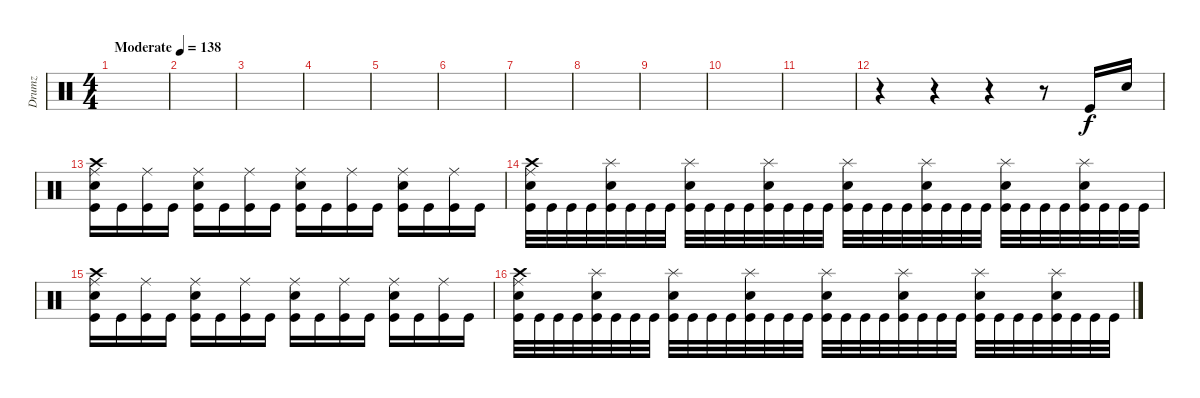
\track ("Drumz" "Drumz") {instrument percussion}
\staff {score}
\articulation defaults
\ts (4 4)
\tempo (138 "Moderate")
\clef neutral
\ks c
|
|
|
|
|
|
|
|
|
|
|
r.4 r.4 r.4 r.8 "Kick (hit)".16 "Snare (hit) 2".16 |
("Kick (hit)" "Crash high (hit)" "Ride (middle)" "Snare (hit) 2").16 "Kick (hit)".16 ("Kick (hit)" "Ride (middle)").16 "Kick (hit)".16 ("Kick (hit)" "Ride (middle)" "Snare (hit) 2").16 "Kick (hit)".16 ("Kick (hit)" "Ride (middle)").16 "Kick (hit)".16 ("Kick (hit)" "Ride (middle)" "Snare (hit) 2").16 "Kick (hit)".16 ("Kick (hit)" "Ride (middle)").16 "Kick (hit)".16 ("Kick (hit)" "Ride (middle)" "Snare (hit) 2").16 "Kick (hit)".16 ("Kick (hit)" "Ride (middle)").16 "Kick (hit)".16 |
("Kick (hit)" "Crash high (hit)" "Ride (middle)" "Snare (hit) 2").32 "Kick (hit)".32 "Kick (hit)".32 "Kick (hit)".32 ("Kick (hit)" "Splash (hit)" "Snare (hit) 2").32 "Kick (hit)".32 "Kick (hit)".32 "Kick (hit)".32 ("Kick (hit)" "Splash (hit)" "Snare (hit) 2").32 "Kick (hit)".32 "Kick (hit)".32 "Kick (hit)".32 ("Kick (hit)" "Splash (hit)" "Snare (hit) 2").32 "Kick (hit)".32 "Kick (hit)".32 "Kick (hit)".32 ("Kick (hit)" "Splash (hit)" "Snare (hit) 2").32 "Kick (hit)".32 "Kick (hit)".32 "Kick (hit)".32 ("Kick (hit)" "Splash (hit)" "Snare (hit) 2").32 "Kick (hit)".32 "Kick (hit)".32 "Kick (hit)".32 ("Kick (hit)" "Splash (hit)" "Snare (hit) 2").32 "Kick (hit)".32 "Kick (hit)".32 "Kick (hit)".32 ("Kick (hit)" "Splash (hit)" "Snare (hit) 2").32 "Kick (hit)".32 "Kick (hit)".32 "Kick (hit)".32 |
("Kick (hit)" "Crash high (hit)" "Ride (middle)" "Snare (hit) 2").16 "Kick (hit)".16 ("Kick (hit)" "Ride (middle)").16 "Kick (hit)".16 ("Kick (hit)" "Ride (middle)" "Snare (hit) 2").16 "Kick (hit)".16 ("Kick (hit)" "Ride (middle)").16 "Kick (hit)".16 ("Kick (hit)" "Ride (middle)" "Snare (hit) 2").16 "Kick (hit)".16 ("Kick (hit)" "Ride (middle)").16 "Kick (hit)".16 ("Kick (hit)" "Ride (middle)" "Snare (hit) 2").16 "Kick (hit)".16 ("Kick (hit)" "Ride (middle)").16 "Kick (hit)".16 |
("Kick (hit)" "Crash high (hit)" "Ride (middle)" "Snare (hit) 2").32 "Kick (hit)".32 "Kick (hit)".32 "Kick (hit)".32 ("Kick (hit)" "Splash (hit)" "Snare (hit) 2").32 "Kick (hit)".32 "Kick (hit)".32 "Kick (hit)".32 ("Kick (hit)" "Splash (hit)" "Snare (hit) 2").32 "Kick (hit)".32 "Kick (hit)".32 "Kick (hit)".32 ("Kick (hit)" "Splash (hit)" "Snare (hit) 2").32 "Kick (hit)".32 "Kick (hit)".32 "Kick (hit)".32 ("Kick (hit)" "Splash (hit)" "Snare (hit) 2").32 "Kick (hit)".32 "Kick (hit)".32 "Kick (hit)".32 ("Kick (hit)" "Splash (hit)" "Snare (hit) 2").32 "Kick (hit)".32 "Kick (hit)".32 "Kick (hit)".32 ("Kick (hit)" "Splash (hit)" "Snare (hit) 2").32 "Kick (hit)".32 "Kick (hit)".32 "Kick (hit)".32 ("Kick (hit)" "Splash (hit)" "Snare (hit) 2").32 "Kick (hit)".32 "Kick (hit)".32 "Kick (hit)".32
